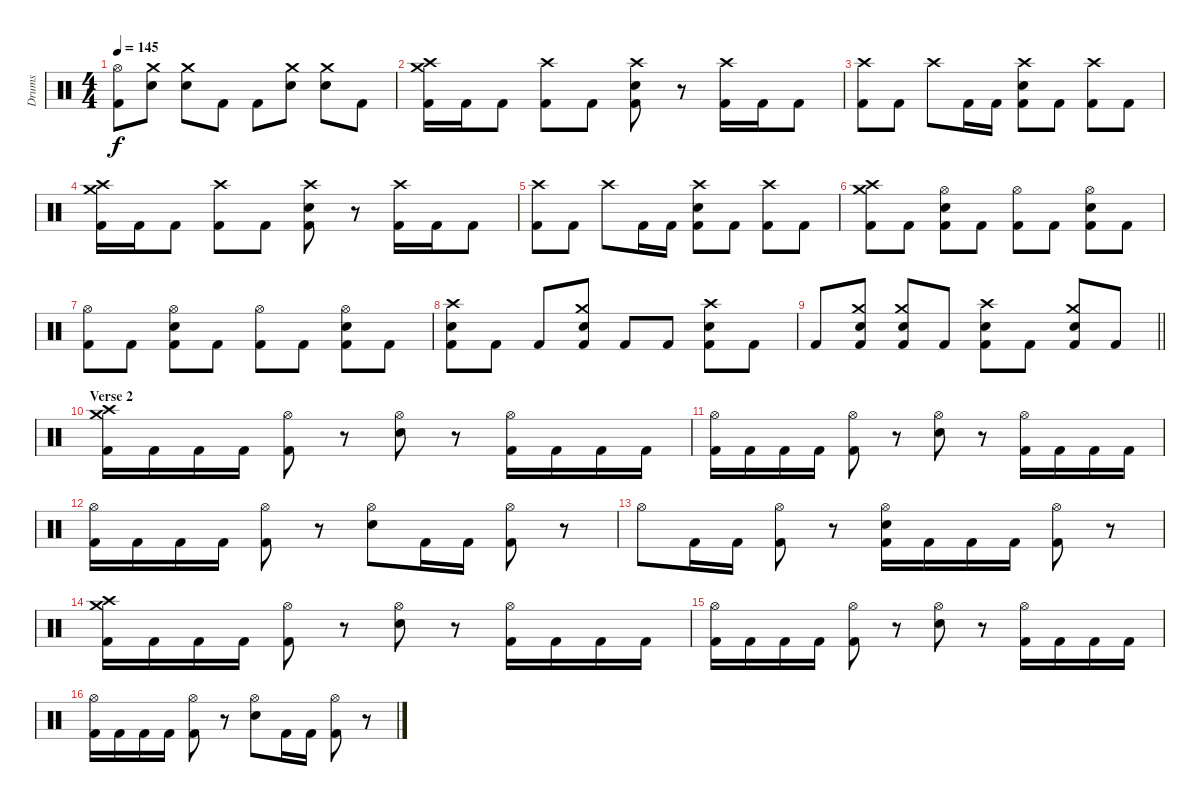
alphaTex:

\track ("Drums" "Drums") {instrument percussion}
\staff {score}
\articulation defaults
\ts (4 4)
\tempo 145
\clef neutral
\ks c
("Hi-Hat (open)" "Kick (hit) 2").8{dy f} ("Crash medium (hit)" "Electric Snare (hit)").8 ("Crash medium (hit)" "Electric Snare (hit)").8 "Kick (hit) 2".8 "Kick (hit) 2".8 ("Crash medium (hit)" "Electric Snare (hit)").8 ("Crash medium (hit)" "Electric Snare (hit)").8 "Kick (hit) 2".8 |
("Crash high (hit)" "Crash medium (hit)" "Kick (hit) 2").16 "Kick (hit) 2".16 "Kick (hit) 2".8 ("Crash high (hit)" "Kick (hit) 2").8 "Kick (hit) 2".8 ("Crash high (hit)" "Electric Snare (hit)" "Kick (hit) 2").8 r.8 ("Crash high (hit)" "Kick (hit) 2").16 "Kick (hit) 2".16 "Kick (hit) 2".8 |
("Crash high (hit)" "Kick (hit) 2").8 "Kick (hit) 2".8 "Crash high (hit)".8 "Kick (hit) 2".16 "Kick (hit) 2".16 ("Crash high (hit)" "Electric Snare (hit)" "Kick (hit) 2").8 "Kick (hit) 2".8 ("Crash high (hit)" "Kick (hit) 2").8 "Kick (hit) 2".8 |
("Crash high (hit)" "Crash medium (hit)" "Kick (hit) 2").16 "Kick (hit) 2".16 "Kick (hit) 2".8 ("Crash high (hit)" "Kick (hit) 2").8 "Kick (hit) 2".8 ("Crash high (hit)" "Electric Snare (hit)" "Kick (hit) 2").8 r.8 ("Crash high (hit)" "Kick (hit) 2").16 "Kick (hit) 2".16 "Kick (hit) 2".8 |
("Crash high (hit)" "Kick (hit) 2").8 "Kick (hit) 2".8 "Crash high (hit)".8 "Kick (hit) 2".16 "Kick (hit) 2".16 ("Crash high (hit)" "Electric Snare (hit)" "Kick (hit) 2").8 "Kick (hit) 2".8 ("Crash high (hit)" "Kick (hit) 2").8 "Kick (hit) 2".8 |
("Crash high (hit)" "Crash medium (hit)" "Kick (hit) 2").8 "Kick (hit) 2".8 ("Hi-Hat (open)" "Electric Snare (hit)" "Kick (hit) 2").8 "Kick (hit) 2".8 ("Hi-Hat (open)" "Kick (hit) 2").8 "Kick (hit) 2".8 ("Hi-Hat (open)" "Electric Snare (hit)" "Kick (hit) 2").8 "Kick (hit) 2".8 |
("Hi-Hat (open)" "Kick (hit) 2").8 "Kick (hit) 2".8 ("Hi-Hat (open)" "Electric Snare (hit)" "Kick (hit) 2").8 "Kick (hit) 2".8 ("Hi-Hat (open)" "Kick (hit) 2").8 "Kick (hit) 2".8 ("Hi-Hat (open)" "Electric Snare (hit)" "Kick (hit) 2").8 "Kick (hit) 2".8 |
("Crash high (hit)" "Electric Snare (hit)" "Kick (hit) 2").8 "Kick (hit) 2".8 "Kick (hit) 2".8 ("Crash medium (hit)" "Electric Snare (hit)" "Kick (hit) 2").8 "Kick (hit) 2".8 "Kick (hit) 2".8 ("Crash high (hit)" "Electric Snare (hit)" "Kick (hit) 2").8 "Kick (hit) 2".8 |
\barLineRight lightlight "Kick (hit) 2".8
("Crash medium (hit)" "Electric Snare (hit)" "Kick (hit) 2").8 ("Crash medium (hit)" "Electric Snare (hit)" "Kick (hit) 2").8 "Kick (hit) 2".8 ("Crash high (hit)" "Electric Snare (hit)" "Kick (hit) 2").8 "Kick (hit) 2".8 ("Crash medium (hit)" "Electric Snare (hit)" "Kick (hit) 2").8 "Kick (hit) 2".8 |
\section ("" "Verse 2")
("Crash high (hit)" "Crash medium (hit)" "Kick (hit) 2").16 "Kick (hit) 2".16 "Kick (hit) 2".16 "Kick (hit) 2".16 ("Hi-Hat (open)" "Kick (hit) 2").8 r.8 ("Hi-Hat (open)" "Electric Snare (hit)").8 r.8 ("Hi-Hat (open)" "Kick (hit) 2").16 "Kick (hit) 2".16 "Kick (hit) 2".16 "Kick (hit) 2".16 |
("Hi-Hat (open)" "Kick (hit) 2").16 "Kick (hit) 2".16 "Kick (hit) 2".16 "Kick (hit) 2".16 ("Hi-Hat (open)" "Kick (hit) 2").8 r.8 ("Hi-Hat (open)" "Electric Snare (hit)").8 r.8 ("Hi-Hat (open)" "Kick (hit) 2").16 "Kick (hit) 2".16 "Kick (hit) 2".16 "Kick (hit) 2".16 |
("Hi-Hat (open)" "Kick (hit) 2").16 "Kick (hit) 2".16 "Kick (hit) 2".16 "Kick (hit) 2".16 ("Hi-Hat (open)" "Kick (hit) 2").8 r.8 ("Hi-Hat (open)" "Electric Snare (hit)").8 "Kick (hit) 2".16 "Kick (hit) 2".16 ("Hi-Hat (open)" "Kick (hit) 2").8 r.8 |
"Hi-Hat (open)".8 "Kick (hit) 2".16 "Kick (hit) 2".16 ("Hi-Hat (open)" "Kick (hit) 2").8 r.8 ("Hi-Hat (open)" "Electric Snare (hit)" "Kick (hit) 2").16 "Kick (hit) 2".16 "Kick (hit) 2".16 "Kick (hit) 2".16 ("Hi-Hat (open)" "Kick (hit) 2").8 r.8 |
("Crash high (hit)" "Crash medium (hit)" "Kick (hit) 2").16 "Kick (hit) 2".16 "Kick (hit) 2".16 "Kick (hit) 2".16 ("Hi-Hat (open)" "Kick (hit) 2").8 r.8 ("Hi-Hat (open)" "Electric Snare (hit)").8 r.8 ("Hi-Hat (open)" "Kick (hit) 2").16 "Kick (hit) 2".16 "Kick (hit) 2".16 "Kick (hit) 2".16 |
("Hi-Hat (open)" "Kick (hit) 2").16 "Kick (hit) 2".16 "Kick (hit) 2".16 "Kick (hit) 2".16 ("Hi-Hat (open)" "Kick (hit) 2").8 r.8 ("Hi-Hat (open)" "Electric Snare (hit)").8 r.8 ("Hi-Hat (open)" "Kick (hit) 2").16 "Kick (hit) 2".16 "Kick (hit) 2".16 "Kick (hit) 2".16 |
("Hi-Hat (open)" "Kick (hit) 2").16 "Kick (hit) 2".16 "Kick (hit) 2".16 "Kick (hit) 2".16 ("Hi-Hat (open)" "Kick (hit) 2").8 r.8 ("Hi-Hat (open)" "Electric Snare (hit)").8 "Kick (hit) 2".16 "Kick (hit) 2".16 ("Hi-Hat (open)" "Kick (hit) 2").8 r.8
